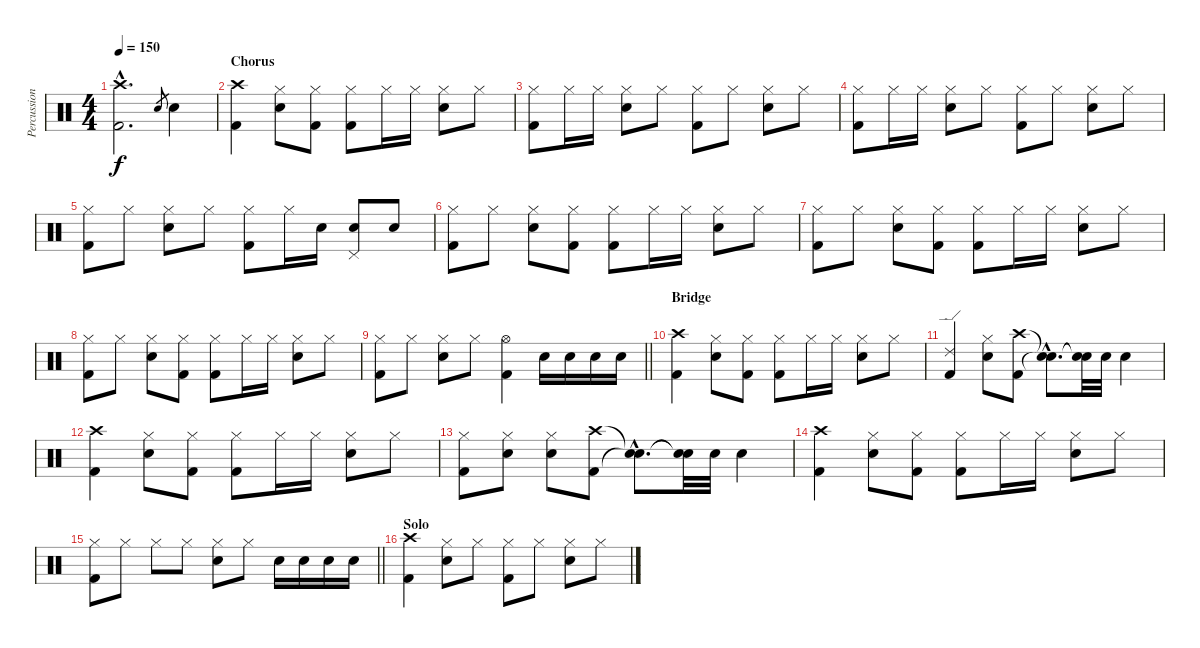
\track ("Percussion" "Percussion") {instrument percussion}
\staff {score}
\articulation defaults
\ts (4 4)
\tempo 150
\clef neutral
\ks c
("Crash high (hit)"{hac} "Kick (hit) 2"{hac}).2{d dy f} "Snare (hit) 2".8{gr} "Snare (hit) 2".4 |
\section ("" "Chorus")
("Crash high (hit)" "Kick (hit) 2").4 ("Hi-Hat (closed)" "Snare (hit) 2").8 ("Hi-Hat (closed)" "Kick (hit) 2").8 ("Hi-Hat (closed)" "Kick (hit) 2").8 "Hi-Hat (closed)".16 "Hi-Hat (closed)".16 ("Hi-Hat (closed)" "Snare (hit) 2").8 "Hi-Hat (closed)".8 |
("Hi-Hat (closed)" "Kick (hit) 2").8 "Hi-Hat (closed)".16 "Hi-Hat (closed)".16 ("Hi-Hat (closed)" "Snare (hit) 2").8 "Hi-Hat (closed)".8 ("Hi-Hat (closed)" "Kick (hit) 2").8 "Hi-Hat (closed)".8 ("Hi-Hat (closed)" "Snare (hit) 2").8 "Hi-Hat (closed)".8 |
("Hi-Hat (closed)" "Kick (hit) 2").8 "Hi-Hat (closed)".16 "Hi-Hat (closed)".16 ("Hi-Hat (closed)" "Snare (hit) 2").8 "Hi-Hat (closed)".8 ("Hi-Hat (closed)" "Kick (hit) 2").8 "Hi-Hat (closed)".8 ("Hi-Hat (closed)" "Snare (hit) 2").8 "Hi-Hat (closed)".8 |
("Hi-Hat (closed)" "Kick (hit) 2").8 "Hi-Hat (closed)".8 ("Hi-Hat (closed)" "Snare (hit) 2").8 "Hi-Hat (closed)".8 ("Hi-Hat (closed)" "Kick (hit) 2").8 "Hi-Hat (closed)".16 "Snare (hit) 2".16 ("Pedal Hi-Hat (hit)" "Snare (hit) 2").8 "Snare (hit) 2".8 |
("Hi-Hat (closed)" "Kick (hit) 2").8 "Hi-Hat (closed)".8 ("Hi-Hat (closed)" "Snare (hit) 2").8 ("Hi-Hat (closed)" "Kick (hit) 2").8 ("Hi-Hat (closed)" "Kick (hit) 2").8 "Hi-Hat (closed)".16 "Hi-Hat (closed)".16 ("Hi-Hat (closed)" "Snare (hit) 2").8 "Hi-Hat (closed)".8 |
("Hi-Hat (closed)" "Kick (hit) 2").8 "Hi-Hat (closed)".8 ("Hi-Hat (closed)" "Snare (hit) 2").8 ("Hi-Hat (closed)" "Kick (hit) 2").8 ("Hi-Hat (closed)" "Kick (hit) 2").8 "Hi-Hat (closed)".16 "Hi-Hat (closed)".16 ("Hi-Hat (closed)" "Snare (hit) 2").8 "Hi-Hat (closed)".8 |
("Hi-Hat (closed)" "Kick (hit) 2").8 "Hi-Hat (closed)".8 ("Hi-Hat (closed)" "Snare (hit) 2").8 ("Hi-Hat (closed)" "Kick (hit) 2").8 ("Hi-Hat (closed)" "Kick (hit) 2").8 "Hi-Hat (closed)".16 "Hi-Hat (closed)".16 ("Hi-Hat (closed)" "Snare (hit) 2").8 "Hi-Hat (closed)".8 |
\barLineRight lightlight
("Hi-Hat (closed)" "Kick (hit) 2").8 "Hi-Hat (closed)".8 ("Hi-Hat (closed)" "Snare (hit) 2").8 "Hi-Hat (closed)".8 ("Hi-Hat (open)" "Kick (hit) 2").4 "Snare (hit) 2".16 "Snare (hit) 2".16 "Snare (hit) 2".16 "Snare (hit) 2".16 |
\section ("" "Bridge")
("Crash high (hit)" "Kick (hit) 2").4 ("Hi-Hat (closed)" "Snare (hit) 2").8 ("Hi-Hat (closed)" "Kick (hit) 2").8 ("Hi-Hat (closed)" "Kick (hit) 2").8 "Hi-Hat (closed)".16 "Hi-Hat (closed)".16 ("Hi-Hat (closed)" "Snare (hit) 2").8 "Hi-Hat (closed)".8 |
("Ride (edge) 2" "Kick (hit) 2").4 ("Hi-Hat (closed)" "Snare (hit) 2").8 ("Crash high (hit)" "Kick (hit) 2").8 ("Snare (hit)"{hac t} "Snare (hit)"{hac t}).8{d} ("Snare (hit)"{t} "Snare (hit)"{t}).32 "Snare (hit) 2".32 "Snare (hit) 2".4 |
("Crash high (hit)" "Kick (hit) 2").4 ("Hi-Hat (closed)" "Snare (hit) 2").8 ("Hi-Hat (closed)" "Kick (hit) 2").8 ("Hi-Hat (closed)" "Kick (hit) 2").8 "Hi-Hat (closed)".16 "Hi-Hat (closed)".16 ("Hi-Hat (closed)" "Snare (hit) 2").8 "Hi-Hat (closed)".8 |
("Hi-Hat (closed)" "Kick (hit) 2").8 ("Hi-Hat (closed)" "Snare (hit) 2").8 ("Hi-Hat (closed)" "Snare (hit) 2").8 ("Crash high (hit)" "Kick (hit) 2").8 ("Snare (hit)"{hac t} "Snare (hit)"{hac t}).8{d} ("Snare (hit)"{t} "Snare (hit)"{t}).32 "Snare (hit) 2".32 "Snare (hit) 2".4 |
("Crash high (hit)" "Kick (hit) 2").4 ("Hi-Hat (closed)" "Snare (hit) 2").8 ("Hi-Hat (closed)" "Kick (hit) 2").8 ("Hi-Hat (closed)" "Kick (hit) 2").8 "Hi-Hat (closed)".16 "Hi-Hat (closed)".16 ("Hi-Hat (closed)" "Snare (hit) 2").8 "Hi-Hat (closed)".8 |
\barLineRight lightlight
("Hi-Hat (closed)" "Kick (hit) 2").8 "Hi-Hat (closed)".8 "Hi-Hat (closed)".8 "Hi-Hat (closed)".8 ("Hi-Hat (closed)" "Snare (hit) 2").8 "Hi-Hat (closed)".8 "Snare (hit) 2".16 "Snare (hit) 2".16 "Snare (hit) 2".16 "Snare (hit) 2".16 |
\section ("" "Solo")
("Crash high (hit)" "Kick (hit) 2").4 ("Hi-Hat (closed)" "Snare (hit) 2").8 "Hi-Hat (closed)".8 ("Hi-Hat (closed)" "Kick (hit) 2").8 "Hi-Hat (closed)".8 ("Hi-Hat (closed)" "Snare (hit) 2").8 "Hi-Hat (closed)".8
